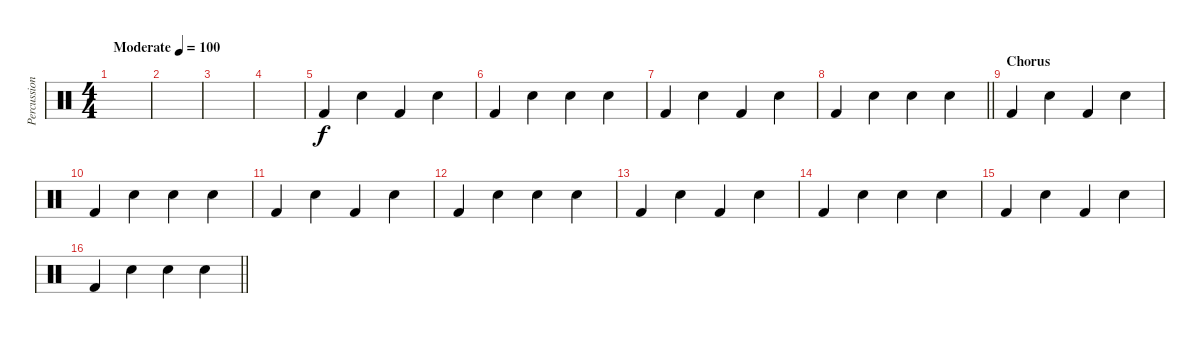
\track ("Percussion" "Percussion") {instrument percussion}
\staff {score}
\articulation defaults
\ts (4 4)
\tempo (100 "Moderate")
\clef neutral
\ks c
|
|
|
|
"Kick (hit) 2".4 "Snare (hit) 2".4 "Kick (hit) 2".4 "Snare (hit) 2".4 |
"Kick (hit) 2".4 "Snare (hit) 2".4 "Snare (hit) 2".4 "Snare (hit) 2".4 |
"Kick (hit) 2".4 "Snare (hit) 2".4 "Kick (hit) 2".4 "Snare (hit) 2".4 |
\barLineRight lightlight "Kick (hit) 2".4 "Snare (hit) 2".4 "Snare (hit) 2".4 "Snare (hit) 2".4
|
\section ("" "Chorus")
"Kick (hit) 2".4 "Snare (hit) 2".4 "Kick (hit) 2".4 "Snare (hit) 2".4 |
"Kick (hit) 2".4 "Snare (hit) 2".4 "Snare (hit) 2".4 "Snare (hit) 2".4 |
"Kick (hit) 2".4 "Snare (hit) 2".4 "Kick (hit) 2".4 "Snare (hit) 2".4 |
"Kick (hit) 2".4 "Snare (hit) 2".4 "Snare (hit) 2".4 "Snare (hit) 2".4 |
"Kick (hit) 2".4 "Snare (hit) 2".4 "Kick (hit) 2".4 "Snare (hit) 2".4 |
"Kick (hit) 2".4 "Snare (hit) 2".4 "Snare (hit) 2".4 "Snare (hit) 2".4 |
"Kick (hit) 2".4 "Snare (hit) 2".4 "Kick (hit) 2".4 "Snare (hit) 2".4 |
\barLineRight lightlight "Kick (hit) 2".4 "Snare (hit) 2".4 "Snare (hit) 2".4 "Snare (hit) 2".4
